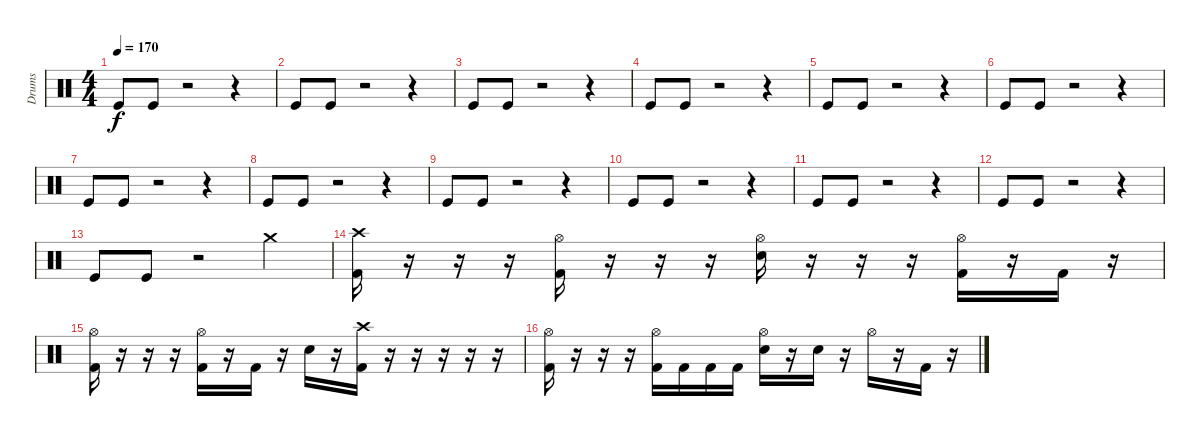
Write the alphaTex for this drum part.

\track ("Drums" "Drums") {instrument percussion}
\staff {score}
\articulation defaults
\ts (4 4)
\tempo 170
\clef neutral
\ks c "Kick (hit)".8{dy f} "Kick (hit)".8
r.2 r.4 |
"Kick (hit)".8 "Kick (hit)".8 r.2 r.4 |
"Kick (hit)".8 "Kick (hit)".8 r.2 r.4 |
"Kick (hit)".8 "Kick (hit)".8 r.2 r.4 |
"Kick (hit)".8 "Kick (hit)".8 r.2 r.4 |
"Kick (hit)".8 "Kick (hit)".8 r.2 r.4 |
"Kick (hit)".8 "Kick (hit)".8 r.2 r.4 |
"Kick (hit)".8 "Kick (hit)".8 r.2 r.4 |
"Kick (hit)".8 "Kick (hit)".8 r.2 r.4 |
"Kick (hit)".8 "Kick (hit)".8 r.2 r.4 |
"Kick (hit)".8 "Kick (hit)".8 r.2 r.4 |
"Kick (hit)".8 "Kick (hit)".8 r.2 r.4 |
"Kick (hit)".8 "Kick (hit)".8 r.2 "Crash medium (hit)".4 |
("Crash high (hit)" "Kick (hit) 2").16 r.16 r.16 r.16 ("Hi-Hat (open)" "Kick (hit) 2").16 r.16 r.16 r.16 ("Hi-Hat (open)" "Electric Snare (hit)").16 r.16 r.16 r.16 ("Hi-Hat (open)" "Kick (hit) 2").16 r.16 "Kick (hit) 2".16 r.16 |
("Hi-Hat (open)" "Kick (hit) 2").16 r.16 r.16 r.16 ("Hi-Hat (open)" "Kick (hit) 2").16 r.16 "Kick (hit) 2".16 r.16 "Electric Snare (hit)".16 r.16 ("Crash high (hit)" "Kick (hit) 2").16 r.16 r.16 r.16 r.16 r.16 |
("Hi-Hat (open)" "Kick (hit) 2").16 r.16 r.16 r.16 ("Hi-Hat (open)" "Kick (hit) 2").16 "Kick (hit) 2".16 "Kick (hit) 2".16 "Kick (hit) 2".16 ("Hi-Hat (open)" "Electric Snare (hit)").16 r.16 "Electric Snare (hit)".16 r.16 "Hi-Hat (open)".16 r.16 "Kick (hit) 2".16 r.16
